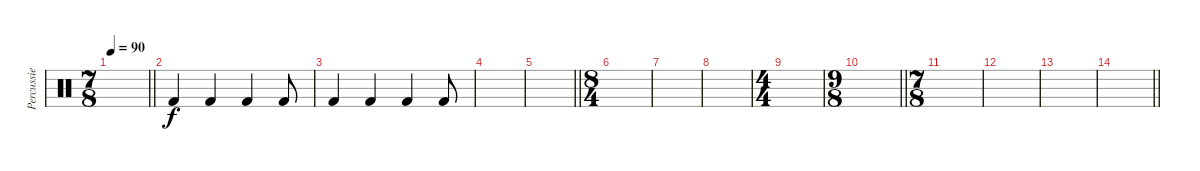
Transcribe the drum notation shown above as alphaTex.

\track ("Percussie" "Percussie") {instrument percussion}
\staff {score}
\articulation defaults
\ts (7 8)
\tempo 90
\clef neutral
\barLineRight lightlight
\ks c
|
"Kick (hit) 2".4 "Kick (hit) 2".4 "Kick (hit) 2".4 "Kick (hit) 2".8 |
"Kick (hit) 2".4 "Kick (hit) 2".4 "Kick (hit) 2".4 "Kick (hit) 2".8 |
|
\barLineRight lightlight
|
\ts (8 4)
|
|
|
\ts (4 4)
|
\ts (9 8)
\barLineRight lightlight
|
\ts (7 8)
|
|
|
\barLineRight lightlight
